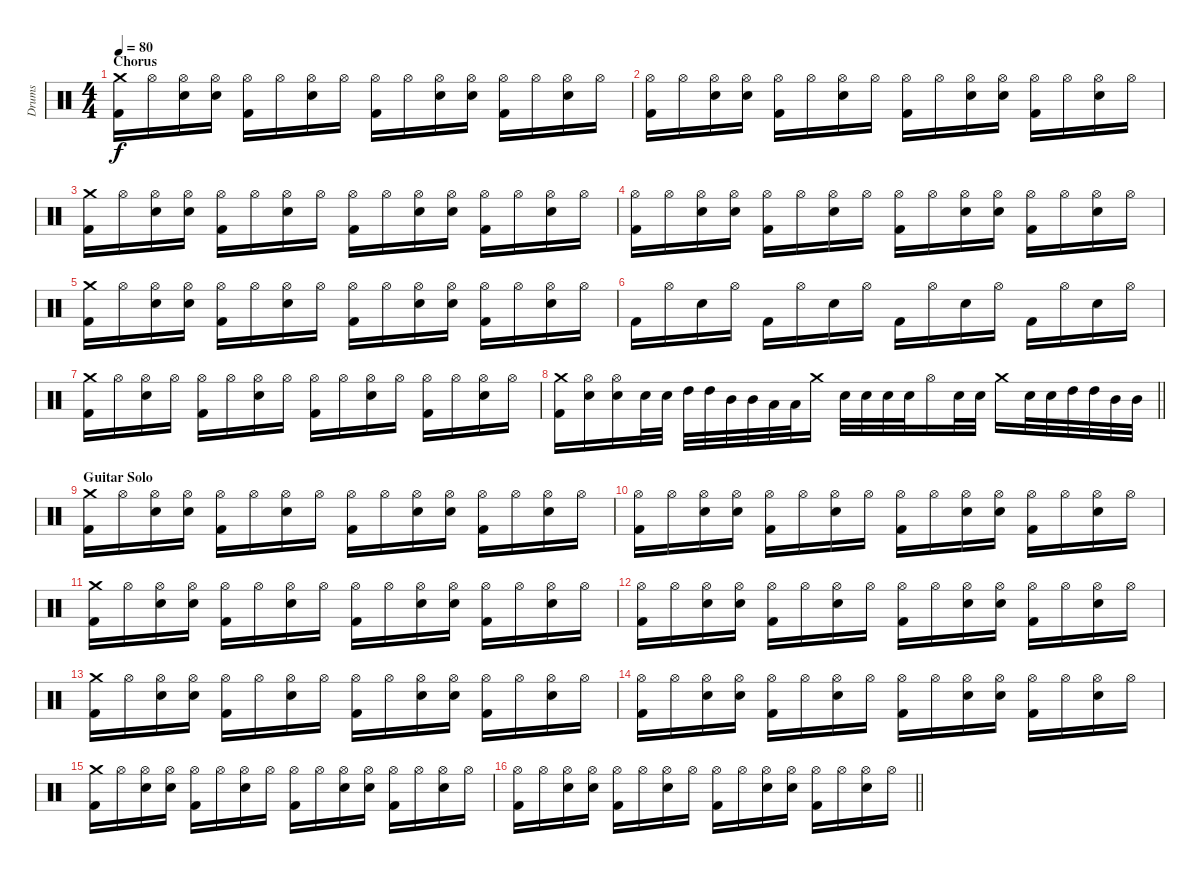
\track ("Drums" "Drums") {instrument percussion}
\staff {score}
\articulation defaults
\ts (4 4)
\section ("" "Chorus")
\tempo 80
\clef neutral
\ks c
("Crash medium (hit)" "Kick (hit) 2").16{dy f} "Hi-Hat (open)".16 ("Hi-Hat (open)" "Snare (hit) 2").16 ("Hi-Hat (open)" "Snare (hit) 2").16 ("Hi-Hat (open)" "Kick (hit) 2").16 "Hi-Hat (open)".16 ("Hi-Hat (open)" "Snare (hit) 2").16 "Hi-Hat (open)".16 ("Hi-Hat (open)" "Kick (hit) 2").16 "Hi-Hat (open)".16 ("Hi-Hat (open)" "Snare (hit) 2").16 ("Hi-Hat (open)" "Snare (hit) 2").16 ("Hi-Hat (open)" "Kick (hit) 2").16 "Hi-Hat (open)".16 ("Hi-Hat (open)" "Snare (hit) 2").16 "Hi-Hat (open)".16 |
("Hi-Hat (open)" "Kick (hit) 2").16 "Hi-Hat (open)".16 ("Hi-Hat (open)" "Snare (hit) 2").16 ("Hi-Hat (open)" "Snare (hit) 2").16 ("Hi-Hat (open)" "Kick (hit) 2").16 "Hi-Hat (open)".16 ("Hi-Hat (open)" "Snare (hit) 2").16 "Hi-Hat (open)".16 ("Hi-Hat (open)" "Kick (hit) 2").16 "Hi-Hat (open)".16 ("Hi-Hat (open)" "Snare (hit) 2").16 ("Hi-Hat (open)" "Snare (hit) 2").16 ("Hi-Hat (open)" "Kick (hit) 2").16 "Hi-Hat (open)".16 ("Hi-Hat (open)" "Snare (hit) 2").16 "Hi-Hat (open)".16 |
("Crash medium (hit)" "Kick (hit) 2").16 "Hi-Hat (open)".16 ("Hi-Hat (open)" "Snare (hit) 2").16 ("Hi-Hat (open)" "Snare (hit) 2").16 ("Hi-Hat (open)" "Kick (hit) 2").16 "Hi-Hat (open)".16 ("Hi-Hat (open)" "Snare (hit) 2").16 "Hi-Hat (open)".16 ("Hi-Hat (open)" "Kick (hit) 2").16 "Hi-Hat (open)".16 ("Hi-Hat (open)" "Snare (hit) 2").16 ("Hi-Hat (open)" "Snare (hit) 2").16 ("Hi-Hat (open)" "Kick (hit) 2").16 "Hi-Hat (open)".16 ("Hi-Hat (open)" "Snare (hit) 2").16 "Hi-Hat (open)".16 |
("Hi-Hat (open)" "Kick (hit) 2").16 "Hi-Hat (open)".16 ("Hi-Hat (open)" "Snare (hit) 2").16 ("Hi-Hat (open)" "Snare (hit) 2").16 ("Hi-Hat (open)" "Kick (hit) 2").16 "Hi-Hat (open)".16 ("Hi-Hat (open)" "Snare (hit) 2").16 "Hi-Hat (open)".16 ("Hi-Hat (open)" "Kick (hit) 2").16 "Hi-Hat (open)".16 ("Hi-Hat (open)" "Snare (hit) 2").16 ("Hi-Hat (open)" "Snare (hit) 2").16 ("Hi-Hat (open)" "Kick (hit) 2").16 "Hi-Hat (open)".16 ("Hi-Hat (open)" "Snare (hit) 2").16 "Hi-Hat (open)".16 |
("Crash medium (hit)" "Kick (hit) 2").16 "Hi-Hat (open)".16 ("Hi-Hat (open)" "Snare (hit) 2").16 ("Hi-Hat (open)" "Snare (hit) 2").16 ("Hi-Hat (open)" "Kick (hit) 2").16 "Hi-Hat (open)".16 ("Hi-Hat (open)" "Snare (hit) 2").16 "Hi-Hat (open)".16 ("Hi-Hat (open)" "Kick (hit) 2").16 "Hi-Hat (open)".16 ("Hi-Hat (open)" "Snare (hit) 2").16 ("Hi-Hat (open)" "Snare (hit) 2").16 ("Hi-Hat (open)" "Kick (hit) 2").16 "Hi-Hat (open)".16 ("Hi-Hat (open)" "Snare (hit) 2").16 "Hi-Hat (open)".16 |
"Kick (hit) 2".16 "Hi-Hat (open)".16 "Snare (hit) 2".16 "Hi-Hat (open)".16 "Kick (hit) 2".16 "Hi-Hat (open)".16 "Snare (hit) 2".16 "Hi-Hat (open)".16 "Kick (hit) 2".16 "Hi-Hat (open)".16 "Snare (hit) 2".16 "Hi-Hat (open)".16 "Kick (hit) 2".16 "Hi-Hat (open)".16 "Snare (hit) 2".16 "Hi-Hat (open)".16 |
("Crash medium (hit)" "Kick (hit) 2").16 "Hi-Hat (open)".16 ("Hi-Hat (open)" "Snare (hit) 2").16 "Hi-Hat (open)".16 ("Hi-Hat (open)" "Kick (hit) 2").16 "Hi-Hat (open)".16 ("Hi-Hat (open)" "Snare (hit) 2").16 "Hi-Hat (open)".16 ("Hi-Hat (open)" "Kick (hit) 2").16 "Hi-Hat (open)".16 ("Hi-Hat (open)" "Snare (hit) 2").16 "Hi-Hat (open)".16 ("Hi-Hat (open)" "Kick (hit) 2").16 "Hi-Hat (open)".16 ("Hi-Hat (open)" "Snare (hit) 2").16 "Hi-Hat (open)".16 |
\barLineRight lightlight
("Crash medium (hit)" "Kick (hit) 2").16 ("Hi-Hat (open)" "Snare (hit) 2").16 ("Hi-Hat (open)" "Snare (hit) 2").16 "Snare (hit) 2".32 "Snare (hit) 2".32 "High Tom (hit)".32 "High Tom (hit)".32 "Mid Tom (hit)".32 "Mid Tom (hit)".32 "Low Tom (hit)".32 "Low Tom (hit)".32 "Crash medium (hit)".16 "Snare (hit) 2".32 "Snare (hit) 2".32 "Snare (hit) 2".32 "Snare (hit) 2".32 "Hi-Hat (open)".16 "Snare (hit) 2".32 "Snare (hit) 2".32 "Crash medium (hit)".16 "Snare (hit) 2".32 "Snare (hit) 2".32 "High Tom (hit)".32 "High Tom (hit)".32 "Mid Tom (hit)".32 "Mid Tom (hit)".32 |
\section ("" "Guitar Solo")
("Crash medium (hit)" "Kick (hit) 2").16 "Hi-Hat (open)".16 ("Hi-Hat (open)" "Snare (hit) 2").16 ("Hi-Hat (open)" "Snare (hit) 2").16 ("Hi-Hat (open)" "Kick (hit) 2").16 "Hi-Hat (open)".16 ("Hi-Hat (open)" "Snare (hit) 2").16 "Hi-Hat (open)".16 ("Hi-Hat (open)" "Kick (hit) 2").16 "Hi-Hat (open)".16 ("Hi-Hat (open)" "Snare (hit) 2").16 ("Hi-Hat (open)" "Snare (hit) 2").16 ("Hi-Hat (open)" "Kick (hit) 2").16 "Hi-Hat (open)".16 ("Hi-Hat (open)" "Snare (hit) 2").16 "Hi-Hat (open)".16 |
("Hi-Hat (open)" "Kick (hit) 2").16 "Hi-Hat (open)".16 ("Hi-Hat (open)" "Snare (hit) 2").16 ("Hi-Hat (open)" "Snare (hit) 2").16 ("Hi-Hat (open)" "Kick (hit) 2").16 "Hi-Hat (open)".16 ("Hi-Hat (open)" "Snare (hit) 2").16 "Hi-Hat (open)".16 ("Hi-Hat (open)" "Kick (hit) 2").16 "Hi-Hat (open)".16 ("Hi-Hat (open)" "Snare (hit) 2").16 ("Hi-Hat (open)" "Snare (hit) 2").16 ("Hi-Hat (open)" "Kick (hit) 2").16 "Hi-Hat (open)".16 ("Hi-Hat (open)" "Snare (hit) 2").16 "Hi-Hat (open)".16 |
("Crash medium (hit)" "Kick (hit) 2").16 "Hi-Hat (open)".16 ("Hi-Hat (open)" "Snare (hit) 2").16 ("Hi-Hat (open)" "Snare (hit) 2").16 ("Hi-Hat (open)" "Kick (hit) 2").16 "Hi-Hat (open)".16 ("Hi-Hat (open)" "Snare (hit) 2").16 "Hi-Hat (open)".16 ("Hi-Hat (open)" "Kick (hit) 2").16 "Hi-Hat (open)".16 ("Hi-Hat (open)" "Snare (hit) 2").16 ("Hi-Hat (open)" "Snare (hit) 2").16 ("Hi-Hat (open)" "Kick (hit) 2").16 "Hi-Hat (open)".16 ("Hi-Hat (open)" "Snare (hit) 2").16 "Hi-Hat (open)".16 |
("Hi-Hat (open)" "Kick (hit) 2").16 "Hi-Hat (open)".16 ("Hi-Hat (open)" "Snare (hit) 2").16 ("Hi-Hat (open)" "Snare (hit) 2").16 ("Hi-Hat (open)" "Kick (hit) 2").16 "Hi-Hat (open)".16 ("Hi-Hat (open)" "Snare (hit) 2").16 "Hi-Hat (open)".16 ("Hi-Hat (open)" "Kick (hit) 2").16 "Hi-Hat (open)".16 ("Hi-Hat (open)" "Snare (hit) 2").16 ("Hi-Hat (open)" "Snare (hit) 2").16 ("Hi-Hat (open)" "Kick (hit) 2").16 "Hi-Hat (open)".16 ("Hi-Hat (open)" "Snare (hit) 2").16 "Hi-Hat (open)".16 |
("Crash medium (hit)" "Kick (hit) 2").16 "Hi-Hat (open)".16 ("Hi-Hat (open)" "Snare (hit) 2").16 ("Hi-Hat (open)" "Snare (hit) 2").16 ("Hi-Hat (open)" "Kick (hit) 2").16 "Hi-Hat (open)".16 ("Hi-Hat (open)" "Snare (hit) 2").16 "Hi-Hat (open)".16 ("Hi-Hat (open)" "Kick (hit) 2").16 "Hi-Hat (open)".16 ("Hi-Hat (open)" "Snare (hit) 2").16 ("Hi-Hat (open)" "Snare (hit) 2").16 ("Hi-Hat (open)" "Kick (hit) 2").16 "Hi-Hat (open)".16 ("Hi-Hat (open)" "Snare (hit) 2").16 "Hi-Hat (open)".16 |
("Hi-Hat (open)" "Kick (hit) 2").16 "Hi-Hat (open)".16 ("Hi-Hat (open)" "Snare (hit) 2").16 ("Hi-Hat (open)" "Snare (hit) 2").16 ("Hi-Hat (open)" "Kick (hit) 2").16 "Hi-Hat (open)".16 ("Hi-Hat (open)" "Snare (hit) 2").16 "Hi-Hat (open)".16 ("Hi-Hat (open)" "Kick (hit) 2").16 "Hi-Hat (open)".16 ("Hi-Hat (open)" "Snare (hit) 2").16 ("Hi-Hat (open)" "Snare (hit) 2").16 ("Hi-Hat (open)" "Kick (hit) 2").16 "Hi-Hat (open)".16 ("Hi-Hat (open)" "Snare (hit) 2").16 "Hi-Hat (open)".16 |
("Crash medium (hit)" "Kick (hit) 2").16 "Hi-Hat (open)".16 ("Hi-Hat (open)" "Snare (hit) 2").16 ("Hi-Hat (open)" "Snare (hit) 2").16 ("Hi-Hat (open)" "Kick (hit) 2").16 "Hi-Hat (open)".16 ("Hi-Hat (open)" "Snare (hit) 2").16 "Hi-Hat (open)".16 ("Hi-Hat (open)" "Kick (hit) 2").16 "Hi-Hat (open)".16 ("Hi-Hat (open)" "Snare (hit) 2").16 ("Hi-Hat (open)" "Snare (hit) 2").16 ("Hi-Hat (open)" "Kick (hit) 2").16 "Hi-Hat (open)".16 ("Hi-Hat (open)" "Snare (hit) 2").16 "Hi-Hat (open)".16 |
\barLineRight lightlight
("Hi-Hat (open)" "Kick (hit) 2").16 "Hi-Hat (open)".16 ("Hi-Hat (open)" "Snare (hit) 2").16 ("Hi-Hat (open)" "Snare (hit) 2").16 ("Hi-Hat (open)" "Kick (hit) 2").16 "Hi-Hat (open)".16 ("Hi-Hat (open)" "Snare (hit) 2").16 "Hi-Hat (open)".16 ("Hi-Hat (open)" "Kick (hit) 2").16 "Hi-Hat (open)".16 ("Hi-Hat (open)" "Snare (hit) 2").16 ("Hi-Hat (open)" "Snare (hit) 2").16 ("Hi-Hat (open)" "Kick (hit) 2").16 "Hi-Hat (open)".16 ("Hi-Hat (open)" "Snare (hit) 2").16 "Hi-Hat (open)".16
